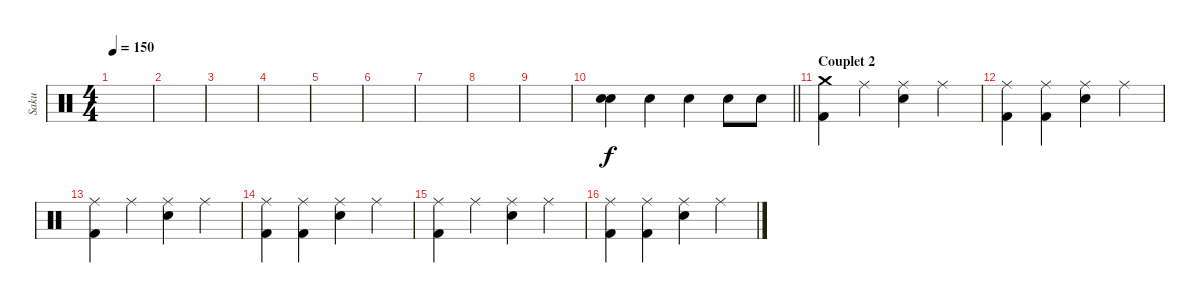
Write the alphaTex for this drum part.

\track ("Saku" "Saku") {instrument percussion}
\staff {score}
\articulation defaults
\ts (4 4)
\tempo 150
\clef neutral
\ks c
|
|
|
|
|
|
|
|
|
\barLineRight lightlight
("Electric Snare (hit)" "Electric Snare (hit)").4{bu 120} "Electric Snare (hit)".4 "Electric Snare (hit)".4 "Electric Snare (hit)".8 "Electric Snare (hit)".8 |
\section ("" "Couplet 2")
("Crash medium (hit)" "Kick (hit) 2").4 "Ride (middle)".4 ("Ride (middle)" "Electric Snare (hit)").4 "Ride (middle)".4 |
("Ride (middle)" "Kick (hit) 2").4 ("Ride (middle)" "Kick (hit) 2").4 ("Ride (middle)" "Electric Snare (hit)").4 "Ride (middle)".4 |
("Ride (middle)" "Kick (hit) 2").4 "Ride (middle)".4 ("Ride (middle)" "Electric Snare (hit)").4 "Ride (middle)".4 |
("Ride (middle)" "Kick (hit) 2").4 ("Ride (middle)" "Kick (hit) 2").4 ("Ride (middle)" "Electric Snare (hit)").4 "Ride (middle)".4 |
("Ride (middle)" "Kick (hit) 2").4 "Ride (middle)".4 ("Ride (middle)" "Electric Snare (hit)").4 "Ride (middle)".4 |
("Ride (middle)" "Kick (hit) 2").4 ("Ride (middle)" "Kick (hit) 2").4 ("Ride (middle)" "Electric Snare (hit)").4 "Ride (middle)".4
